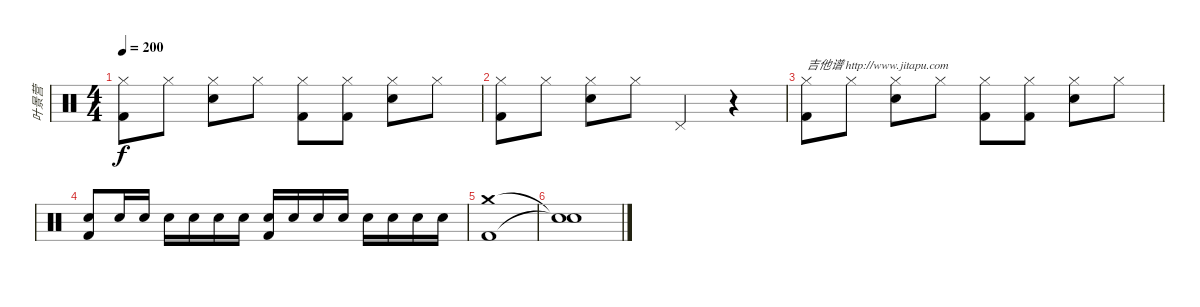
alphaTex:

\track ("叶景营" "叶景营") {instrument percussion}
\staff {score}
\articulation defaults
\ts (4 4)
\tempo 200
\clef neutral
\ks c
("Hi-Hat (closed)" "Kick (hit) 2").8{dy f} "Hi-Hat (closed)".8 ("Hi-Hat (closed)" "Electric Snare (hit)").8 "Hi-Hat (closed)".8 ("Hi-Hat (closed)" "Kick (hit) 2").8 ("Hi-Hat (closed)" "Kick (hit) 2").8 ("Hi-Hat (closed)" "Electric Snare (hit)").8 "Hi-Hat (closed)".8 |
("Hi-Hat (closed)" "Kick (hit) 2").8 "Hi-Hat (closed)".8 ("Hi-Hat (closed)" "Electric Snare (hit)").8 "Hi-Hat (closed)".8 "Pedal Hi-Hat (hit)".4 r.4 |
("Hi-Hat (closed)" "Kick (hit) 2").8{txt "吉他谱 http://www.jitapu.com"} "Hi-Hat (closed)".8 ("Hi-Hat (closed)" "Electric Snare (hit)").8 "Hi-Hat (closed)".8 ("Hi-Hat (closed)" "Kick (hit) 2").8 ("Hi-Hat (closed)" "Kick (hit) 2").8 ("Hi-Hat (closed)" "Electric Snare (hit)").8 "Hi-Hat (closed)".8 |
("Kick (hit) 2" "Electric Snare (hit)").8 "Electric Snare (hit)".16 "Electric Snare (hit)".16 "Electric Snare (hit)".16 "Electric Snare (hit)".16 "Electric Snare (hit)".16 "Electric Snare (hit)".16 ("Kick (hit) 2" "Electric Snare (hit)").16 "Electric Snare (hit)".16 "Electric Snare (hit)".16 "Electric Snare (hit)".16 "Electric Snare (hit)".16 "Electric Snare (hit)".16 "Electric Snare (hit)".16 "Electric Snare (hit)".16 |
("Crash medium (hit)" "Kick (hit) 2").1 |
("Snare (hit)"{t} "Snare (hit)"{t}).1
